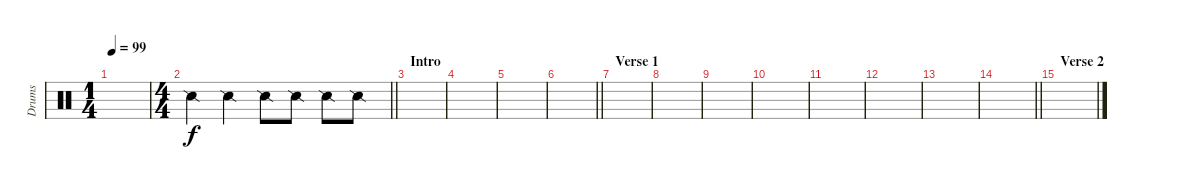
\track ("Drums" "Drums") {instrument percussion}
\staff {score}
\articulation defaults
\ts (1 4)
\tempo 99
\clef neutral
\ks c
|
\ts (4 4)
\barLineRight lightlight "Snare (side stick) 2".4 "Snare (side stick) 2".4 "Snare (side stick) 2".8 "Snare (side stick) 2".8 "Snare (side stick) 2".8 "Snare (side stick) 2".8
|
\section ("" "Intro")
|
|
|
\barLineRight lightlight
|
\section ("" "Verse 1")
|
|
|
|
|
|
|
\barLineRight lightlight
|
\section ("" "Verse 2")
